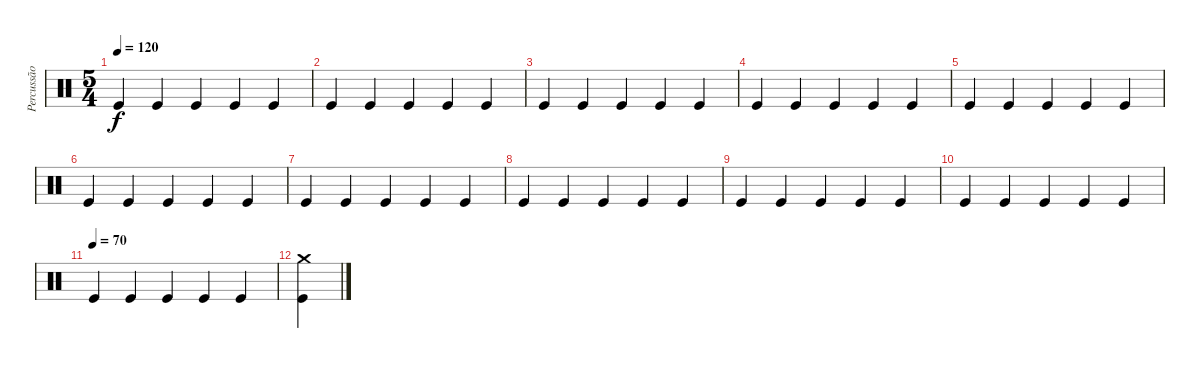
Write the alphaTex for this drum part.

\track ("Percussão" "Percussão") {instrument percussion}
\staff {score}
\articulation defaults
\ts (5 4)
\tempo 120
\clef neutral
\ks c "Kick (hit)".4{dy f} "Kick (hit)".4 "Kick (hit)".4 "Kick (hit)".4 "Kick (hit)".4
|
"Kick (hit)".4 "Kick (hit)".4 "Kick (hit)".4 "Kick (hit)".4 "Kick (hit)".4 |
"Kick (hit)".4 "Kick (hit)".4 "Kick (hit)".4 "Kick (hit)".4 "Kick (hit)".4 |
"Kick (hit)".4 "Kick (hit)".4 "Kick (hit)".4 "Kick (hit)".4 "Kick (hit)".4 |
"Kick (hit)".4 "Kick (hit)".4 "Kick (hit)".4 "Kick (hit)".4 "Kick (hit)".4 |
"Kick (hit)".4 "Kick (hit)".4 "Kick (hit)".4 "Kick (hit)".4 "Kick (hit)".4 |
"Kick (hit)".4 "Kick (hit)".4 "Kick (hit)".4 "Kick (hit)".4 "Kick (hit)".4 |
"Kick (hit)".4 "Kick (hit)".4 "Kick (hit)".4 "Kick (hit)".4 "Kick (hit)".4 |
"Kick (hit)".4 "Kick (hit)".4 "Kick (hit)".4 "Kick (hit)".4 "Kick (hit)".4 |
"Kick (hit)".4 "Kick (hit)".4 "Kick (hit)".4 "Kick (hit)".4 "Kick (hit)".4 |
\tempo (70)
"Kick (hit)".4 "Kick (hit)".4 "Kick (hit)".4 "Kick (hit)".4 "Kick (hit)".4 |
("Crash medium (hit)" "Kick (hit)").4
